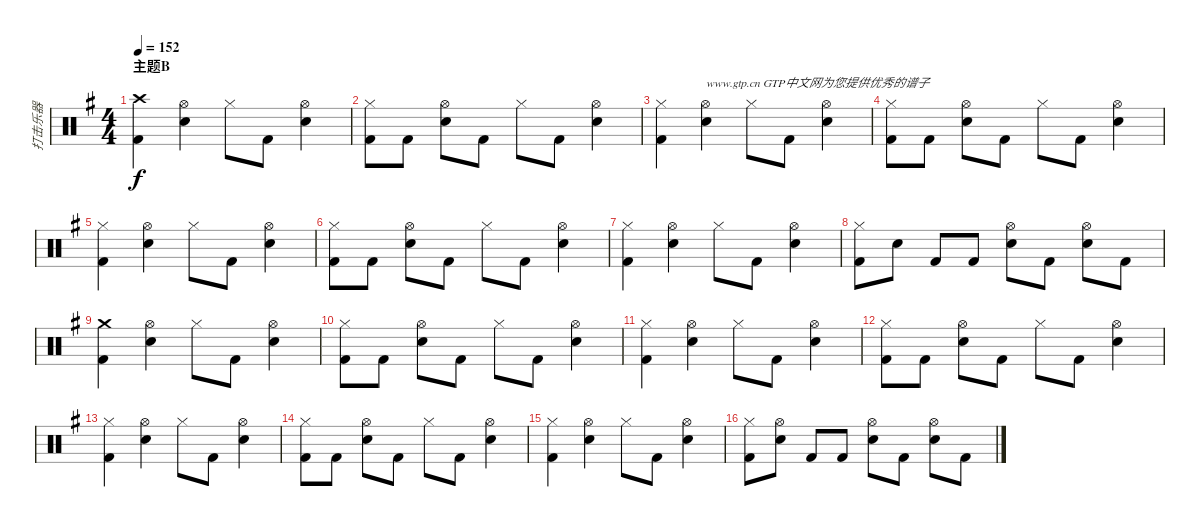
\track ("打击乐器" "打击乐器") {instrument percussion}
\staff {score}
\articulation defaults
\ts (4 4)
\section ("" "主题B")
\tempo 152
\clef neutral
\ks g
("Crash high (hit)" "Kick (hit) 2").4{dy f} ("Hi-Hat (open)" "Metronome (bell)").4 "Hi-Hat (closed)".8 "Kick (hit) 2".8 ("Hi-Hat (open)" "Metronome (bell)").4 |
("Hi-Hat (closed)" "Kick (hit) 2").8 "Kick (hit) 2".8 ("Hi-Hat (open)" "Metronome (bell)").8 "Kick (hit) 2".8 "Hi-Hat (closed)".8 "Kick (hit) 2".8 ("Hi-Hat (open)" "Metronome (bell)").4 |
("Hi-Hat (closed)" "Kick (hit) 2").4 ("Hi-Hat (open)" "Metronome (bell)").4{txt "www.gtp.cn GTP中文网为您提供优秀的谱子"} "Hi-Hat (closed)".8 "Kick (hit) 2".8 ("Hi-Hat (open)" "Metronome (bell)").4 |
("Hi-Hat (closed)" "Kick (hit) 2").8 "Kick (hit) 2".8 ("Hi-Hat (open)" "Metronome (bell)").8 "Kick (hit) 2".8 "Hi-Hat (closed)".8 "Kick (hit) 2".8 ("Hi-Hat (open)" "Metronome (bell)").4 |
("Hi-Hat (closed)" "Kick (hit) 2").4 ("Hi-Hat (open)" "Metronome (bell)").4 "Hi-Hat (closed)".8 "Kick (hit) 2".8 ("Hi-Hat (open)" "Metronome (bell)").4 |
("Hi-Hat (closed)" "Kick (hit) 2").8 "Kick (hit) 2".8 ("Hi-Hat (open)" "Metronome (bell)").8 "Kick (hit) 2".8 "Hi-Hat (closed)".8 "Kick (hit) 2".8 ("Hi-Hat (open)" "Metronome (bell)").4 |
("Hi-Hat (closed)" "Kick (hit) 2").4 ("Hi-Hat (open)" "Metronome (bell)").4 "Hi-Hat (closed)".8 "Kick (hit) 2".8 ("Hi-Hat (open)" "Metronome (bell)").4 |
("Hi-Hat (closed)" "Kick (hit) 2").8 "Metronome (bell)".8 "Kick (hit) 2".8 "Kick (hit) 2".8 ("Hi-Hat (open)" "Metronome (bell)").8 "Kick (hit) 2".8 ("Hi-Hat (open)" "Metronome (bell)").8 "Kick (hit) 2".8 |
("Crash medium (hit)" "Kick (hit) 2").4 ("Hi-Hat (open)" "Metronome (bell)").4 "Hi-Hat (closed)".8 "Kick (hit) 2".8 ("Hi-Hat (open)" "Metronome (bell)").4 |
("Hi-Hat (closed)" "Kick (hit) 2").8 "Kick (hit) 2".8 ("Hi-Hat (open)" "Metronome (bell)").8 "Kick (hit) 2".8 "Hi-Hat (closed)".8 "Kick (hit) 2".8 ("Hi-Hat (open)" "Metronome (bell)").4 |
("Hi-Hat (closed)" "Kick (hit) 2").4 ("Hi-Hat (open)" "Metronome (bell)").4 "Hi-Hat (closed)".8 "Kick (hit) 2".8 ("Hi-Hat (open)" "Metronome (bell)").4 |
("Hi-Hat (closed)" "Kick (hit) 2").8 "Kick (hit) 2".8 ("Hi-Hat (open)" "Metronome (bell)").8 "Kick (hit) 2".8 "Hi-Hat (closed)".8 "Kick (hit) 2".8 ("Hi-Hat (open)" "Metronome (bell)").4 |
("Hi-Hat (closed)" "Kick (hit) 2").4 ("Hi-Hat (open)" "Metronome (bell)").4 "Hi-Hat (closed)".8 "Kick (hit) 2".8 ("Hi-Hat (open)" "Metronome (bell)").4 |
("Hi-Hat (closed)" "Kick (hit) 2").8 "Kick (hit) 2".8 ("Hi-Hat (open)" "Metronome (bell)").8 "Kick (hit) 2".8 "Hi-Hat (closed)".8 "Kick (hit) 2".8 ("Hi-Hat (open)" "Metronome (bell)").4 |
("Hi-Hat (closed)" "Kick (hit) 2").4 ("Hi-Hat (open)" "Metronome (bell)").4 "Hi-Hat (closed)".8 "Kick (hit) 2".8 ("Hi-Hat (open)" "Metronome (bell)").4 |
("Hi-Hat (closed)" "Kick (hit) 2").8 ("Hi-Hat (open)" "Metronome (bell)").8 "Kick (hit) 2".8 "Kick (hit) 2".8 ("Hi-Hat (open)" "Metronome (bell)").8 "Kick (hit) 2".8 ("Hi-Hat (open)" "Metronome (bell)").8 "Kick (hit) 2".8
